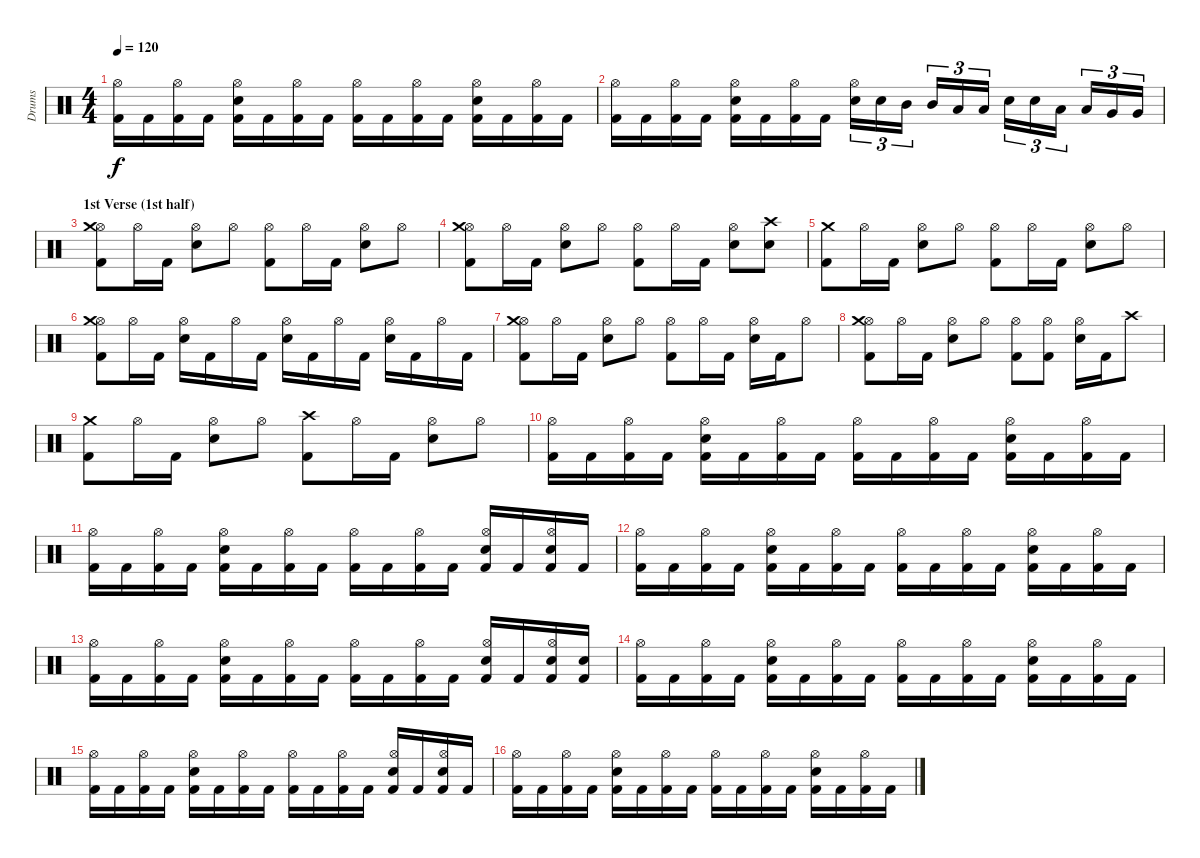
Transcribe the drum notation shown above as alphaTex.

\track ("Drums" "Drums") {instrument percussion}
\staff {score}
\articulation defaults
\ts (4 4)
\tempo 120
\clef neutral
\ks c
("Kick (hit) 2" "Hi-Hat (open)").16{dy f} "Kick (hit) 2".16 ("Kick (hit) 2" "Hi-Hat (open)").16 "Kick (hit) 2".16 ("Kick (hit) 2" "Electric Snare (hit)" "Hi-Hat (open)").16 "Kick (hit) 2".16 ("Kick (hit) 2" "Hi-Hat (open)").16 "Kick (hit) 2".16 ("Kick (hit) 2" "Hi-Hat (open)").16 "Kick (hit) 2".16 ("Kick (hit) 2" "Hi-Hat (open)").16 "Kick (hit) 2".16 ("Kick (hit) 2" "Electric Snare (hit)" "Hi-Hat (open)").16 "Kick (hit) 2".16 ("Kick (hit) 2" "Hi-Hat (open)").16 "Kick (hit) 2".16 |
("Kick (hit) 2" "Hi-Hat (open)").16 "Kick (hit) 2".16 ("Kick (hit) 2" "Hi-Hat (open)").16 "Kick (hit) 2".16 ("Kick (hit) 2" "Electric Snare (hit)" "Hi-Hat (open)").16 "Kick (hit) 2".16 ("Kick (hit) 2" "Hi-Hat (open)").16 "Kick (hit) 2".16 ("Electric Snare (hit)" "Hi-Hat (open)").16{tu (3 2)} "Electric Snare (hit)".16{tu (3 2)} "Mid Tom (hit)".16{tu (3 2)} "Mid Tom (hit)".16{tu (3 2)} "Low Tom (hit)".16{tu (3 2)} "Low Tom (hit)".16{tu (3 2)} "Electric Snare (hit)".16{tu (3 2)} "Electric Snare (hit)".16{tu (3 2)} "Low Tom (hit)".16{tu (3 2)} "Low Tom (hit)".16{tu (3 2)} "Very Low Tom (hit)".16{tu (3 2)} "Very Low Tom (hit)".16{tu (3 2)} |
\section ("" "1st Verse (1st half)")
("Kick (hit) 2" "Hi-Hat (open)" "Crash medium (hit)").8 "Hi-Hat (open)".16 "Kick (hit) 2".16 ("Electric Snare (hit)" "Hi-Hat (open)").8 "Hi-Hat (open)".8 ("Kick (hit) 2" "Hi-Hat (open)").8 "Hi-Hat (open)".16 "Kick (hit) 2".16 ("Electric Snare (hit)" "Hi-Hat (open)").8 "Hi-Hat (open)".8 |
("Kick (hit) 2" "Hi-Hat (open)" "Crash medium (hit)").8 "Hi-Hat (open)".16 "Kick (hit) 2".16 ("Electric Snare (hit)" "Hi-Hat (open)").8 "Hi-Hat (open)".8 ("Kick (hit) 2" "Hi-Hat (open)").8 "Hi-Hat (open)".16 "Kick (hit) 2".16 ("Electric Snare (hit)" "Hi-Hat (open)").8 ("Electric Snare (hit)" "Crash high (hit)").8 |
("Kick (hit) 2" "Crash medium (hit)").8 "Hi-Hat (open)".16 "Kick (hit) 2".16 ("Electric Snare (hit)" "Hi-Hat (open)").8 "Hi-Hat (open)".8 ("Kick (hit) 2" "Hi-Hat (open)").8 "Hi-Hat (open)".16 "Kick (hit) 2".16 ("Electric Snare (hit)" "Hi-Hat (open)").8 "Hi-Hat (open)".8 |
("Kick (hit) 2" "Hi-Hat (open)" "Crash medium (hit)").8 "Hi-Hat (open)".16 "Kick (hit) 2".16 ("Electric Snare (hit)" "Hi-Hat (open)").16 "Kick (hit) 2".16 "Hi-Hat (open)".16 "Kick (hit) 2".16 ("Electric Snare (hit)" "Hi-Hat (open)").16 "Kick (hit) 2".16 "Hi-Hat (open)".16 "Kick (hit) 2".16 ("Electric Snare (hit)" "Hi-Hat (open)").16 "Kick (hit) 2".16 "Hi-Hat (open)".16 "Kick (hit) 2".16 |
("Kick (hit) 2" "Hi-Hat (open)" "Crash medium (hit)").8 "Hi-Hat (open)".16 "Kick (hit) 2".16 ("Electric Snare (hit)" "Hi-Hat (open)").8 "Hi-Hat (open)".8 ("Kick (hit) 2" "Hi-Hat (open)").8 "Hi-Hat (open)".16 "Kick (hit) 2".16 ("Electric Snare (hit)" "Hi-Hat (open)").16 "Kick (hit) 2".16 "Hi-Hat (open)".8 |
("Kick (hit) 2" "Hi-Hat (open)" "Crash medium (hit)").8 "Hi-Hat (open)".16 "Kick (hit) 2".16 ("Electric Snare (hit)" "Hi-Hat (open)").8 "Hi-Hat (open)".8 ("Kick (hit) 2" "Hi-Hat (open)").8 ("Kick (hit) 2" "Hi-Hat (open)").8 ("Electric Snare (hit)" "Hi-Hat (open)").16 "Kick (hit) 2".16 "Crash high (hit)".8 |
("Kick (hit) 2" "Crash medium (hit)").8 "Hi-Hat (open)".16 "Kick (hit) 2".16 ("Electric Snare (hit)" "Hi-Hat (open)").8 "Hi-Hat (open)".8 ("Kick (hit) 2" "Crash high (hit)").8 "Hi-Hat (open)".16 "Kick (hit) 2".16 ("Electric Snare (hit)" "Hi-Hat (open)").8 "Hi-Hat (open)".8 |
("Kick (hit) 2" "Hi-Hat (open)").16 "Kick (hit) 2".16 ("Kick (hit) 2" "Hi-Hat (open)").16 "Kick (hit) 2".16 ("Kick (hit) 2" "Electric Snare (hit)" "Hi-Hat (open)").16 "Kick (hit) 2".16 ("Kick (hit) 2" "Hi-Hat (open)").16 "Kick (hit) 2".16 ("Kick (hit) 2" "Hi-Hat (open)").16 "Kick (hit) 2".16 ("Kick (hit) 2" "Hi-Hat (open)").16 "Kick (hit) 2".16 ("Kick (hit) 2" "Electric Snare (hit)" "Hi-Hat (open)").16 "Kick (hit) 2".16 ("Kick (hit) 2" "Hi-Hat (open)").16 "Kick (hit) 2".16 |
("Kick (hit) 2" "Hi-Hat (open)").16 "Kick (hit) 2".16 ("Kick (hit) 2" "Hi-Hat (open)").16 "Kick (hit) 2".16 ("Kick (hit) 2" "Electric Snare (hit)" "Hi-Hat (open)").16 "Kick (hit) 2".16 ("Kick (hit) 2" "Hi-Hat (open)").16 "Kick (hit) 2".16 ("Kick (hit) 2" "Hi-Hat (open)").16 "Kick (hit) 2".16 ("Kick (hit) 2" "Hi-Hat (open)").16 "Kick (hit) 2".16 ("Kick (hit) 2" "Electric Snare (hit)" "Hi-Hat (open)").16 "Kick (hit) 2".16 ("Kick (hit) 2" "Electric Snare (hit)" "Hi-Hat (open)").16 "Kick (hit) 2".16 |
("Kick (hit) 2" "Hi-Hat (open)").16 "Kick (hit) 2".16 ("Kick (hit) 2" "Hi-Hat (open)").16 "Kick (hit) 2".16 ("Kick (hit) 2" "Electric Snare (hit)" "Hi-Hat (open)").16 "Kick (hit) 2".16 ("Kick (hit) 2" "Hi-Hat (open)").16 "Kick (hit) 2".16 ("Kick (hit) 2" "Hi-Hat (open)").16 "Kick (hit) 2".16 ("Kick (hit) 2" "Hi-Hat (open)").16 "Kick (hit) 2".16 ("Kick (hit) 2" "Electric Snare (hit)" "Hi-Hat (open)").16 "Kick (hit) 2".16 ("Kick (hit) 2" "Hi-Hat (open)").16 "Kick (hit) 2".16 |
("Kick (hit) 2" "Hi-Hat (open)").16 "Kick (hit) 2".16 ("Kick (hit) 2" "Hi-Hat (open)").16 "Kick (hit) 2".16 ("Kick (hit) 2" "Electric Snare (hit)" "Hi-Hat (open)").16 "Kick (hit) 2".16 ("Kick (hit) 2" "Hi-Hat (open)").16 "Kick (hit) 2".16 ("Kick (hit) 2" "Hi-Hat (open)").16 "Kick (hit) 2".16 ("Kick (hit) 2" "Hi-Hat (open)").16 "Kick (hit) 2".16 ("Kick (hit) 2" "Electric Snare (hit)" "Hi-Hat (open)").16 "Kick (hit) 2".16 ("Kick (hit) 2" "Electric Snare (hit)" "Hi-Hat (open)").16 ("Kick (hit) 2" "Electric Snare (hit)").16 |
("Kick (hit) 2" "Hi-Hat (open)").16 "Kick (hit) 2".16 ("Kick (hit) 2" "Hi-Hat (open)").16 "Kick (hit) 2".16 ("Kick (hit) 2" "Electric Snare (hit)" "Hi-Hat (open)").16 "Kick (hit) 2".16 ("Kick (hit) 2" "Hi-Hat (open)").16 "Kick (hit) 2".16 ("Kick (hit) 2" "Hi-Hat (open)").16 "Kick (hit) 2".16 ("Kick (hit) 2" "Hi-Hat (open)").16 "Kick (hit) 2".16 ("Kick (hit) 2" "Electric Snare (hit)" "Hi-Hat (open)").16 "Kick (hit) 2".16 ("Kick (hit) 2" "Hi-Hat (open)").16 "Kick (hit) 2".16 |
("Kick (hit) 2" "Hi-Hat (open)").16 "Kick (hit) 2".16 ("Kick (hit) 2" "Hi-Hat (open)").16 "Kick (hit) 2".16 ("Kick (hit) 2" "Electric Snare (hit)" "Hi-Hat (open)").16 "Kick (hit) 2".16 ("Kick (hit) 2" "Hi-Hat (open)").16 "Kick (hit) 2".16 ("Kick (hit) 2" "Hi-Hat (open)").16 "Kick (hit) 2".16 ("Kick (hit) 2" "Hi-Hat (open)").16 "Kick (hit) 2".16 ("Kick (hit) 2" "Electric Snare (hit)" "Hi-Hat (open)").16 "Kick (hit) 2".16 ("Kick (hit) 2" "Electric Snare (hit)" "Hi-Hat (open)").16 "Kick (hit) 2".16 |
("Kick (hit) 2" "Hi-Hat (open)").16 "Kick (hit) 2".16 ("Kick (hit) 2" "Hi-Hat (open)").16 "Kick (hit) 2".16 ("Kick (hit) 2" "Electric Snare (hit)" "Hi-Hat (open)").16 "Kick (hit) 2".16 ("Kick (hit) 2" "Hi-Hat (open)").16 "Kick (hit) 2".16 ("Kick (hit) 2" "Hi-Hat (open)").16 "Kick (hit) 2".16 ("Kick (hit) 2" "Hi-Hat (open)").16 "Kick (hit) 2".16 ("Kick (hit) 2" "Electric Snare (hit)" "Hi-Hat (open)").16 "Kick (hit) 2".16 ("Kick (hit) 2" "Hi-Hat (open)").16 "Kick (hit) 2".16
